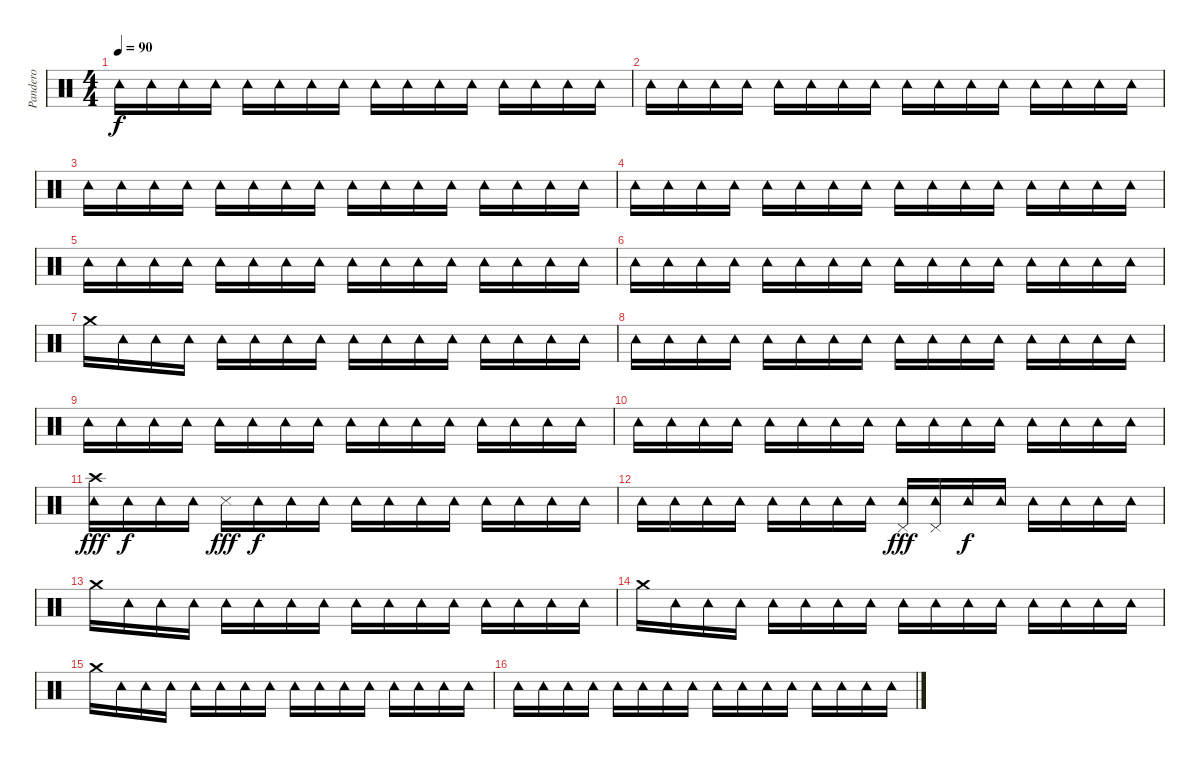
\track ("Pandero" "Pandero") {instrument percussion}
\staff {score}
\articulation defaults
\ts (4 4)
\tempo 90
\clef neutral
\ks c "Tambourine (hit)".16{dy f} "Tambourine (hit)".16 "Tambourine (hit)".16 "Tambourine (hit)".16 "Tambourine (hit)".16 "Tambourine (hit)".16 "Tambourine (hit)".16 "Tambourine (hit)".16 "Tambourine (hit)".16 "Tambourine (hit)".16 "Tambourine (hit)".16 "Tambourine (hit)".16 "Tambourine (hit)".16 "Tambourine (hit)".16 "Tambourine (hit)".16 "Tambourine (hit)".16
|
"Tambourine (hit)".16 "Tambourine (hit)".16 "Tambourine (hit)".16 "Tambourine (hit)".16 "Tambourine (hit)".16 "Tambourine (hit)".16 "Tambourine (hit)".16 "Tambourine (hit)".16 "Tambourine (hit)".16 "Tambourine (hit)".16 "Tambourine (hit)".16 "Tambourine (hit)".16 "Tambourine (hit)".16 "Tambourine (hit)".16 "Tambourine (hit)".16 "Tambourine (hit)".16 |
"Tambourine (hit)".16 "Tambourine (hit)".16 "Tambourine (hit)".16 "Tambourine (hit)".16 "Tambourine (hit)".16 "Tambourine (hit)".16 "Tambourine (hit)".16 "Tambourine (hit)".16 "Tambourine (hit)".16 "Tambourine (hit)".16 "Tambourine (hit)".16 "Tambourine (hit)".16 "Tambourine (hit)".16 "Tambourine (hit)".16 "Tambourine (hit)".16 "Tambourine (hit)".16 |
"Tambourine (hit)".16 "Tambourine (hit)".16 "Tambourine (hit)".16 "Tambourine (hit)".16 "Tambourine (hit)".16 "Tambourine (hit)".16 "Tambourine (hit)".16 "Tambourine (hit)".16 "Tambourine (hit)".16 "Tambourine (hit)".16 "Tambourine (hit)".16 "Tambourine (hit)".16 "Tambourine (hit)".16 "Tambourine (hit)".16 "Tambourine (hit)".16 "Tambourine (hit)".16 |
"Tambourine (hit)".16 "Tambourine (hit)".16 "Tambourine (hit)".16 "Tambourine (hit)".16 "Tambourine (hit)".16 "Tambourine (hit)".16 "Tambourine (hit)".16 "Tambourine (hit)".16 "Tambourine (hit)".16 "Tambourine (hit)".16 "Tambourine (hit)".16 "Tambourine (hit)".16 "Tambourine (hit)".16 "Tambourine (hit)".16 "Tambourine (hit)".16 "Tambourine (hit)".16 |
"Tambourine (hit)".16 "Tambourine (hit)".16 "Tambourine (hit)".16 "Tambourine (hit)".16 "Tambourine (hit)".16 "Tambourine (hit)".16 "Tambourine (hit)".16 "Tambourine (hit)".16 "Tambourine (hit)".16 "Tambourine (hit)".16 "Tambourine (hit)".16 "Tambourine (hit)".16 "Tambourine (hit)".16 "Tambourine (hit)".16 "Tambourine (hit)".16 "Tambourine (hit)".16 |
"Crash medium (hit)".16 "Tambourine (hit)".16 "Tambourine (hit)".16 "Tambourine (hit)".16 "Tambourine (hit)".16 "Tambourine (hit)".16 "Tambourine (hit)".16 "Tambourine (hit)".16 "Tambourine (hit)".16 "Tambourine (hit)".16 "Tambourine (hit)".16 "Tambourine (hit)".16 "Tambourine (hit)".16 "Tambourine (hit)".16 "Tambourine (hit)".16 "Tambourine (hit)".16 |
"Tambourine (hit)".16 "Tambourine (hit)".16 "Tambourine (hit)".16 "Tambourine (hit)".16 "Tambourine (hit)".16 "Tambourine (hit)".16 "Tambourine (hit)".16 "Tambourine (hit)".16 "Tambourine (hit)".16 "Tambourine (hit)".16 "Tambourine (hit)".16 "Tambourine (hit)".16 "Tambourine (hit)".16 "Tambourine (hit)".16 "Tambourine (hit)".16 "Tambourine (hit)".16 |
"Tambourine (hit)".16 "Tambourine (hit)".16 "Tambourine (hit)".16 "Tambourine (hit)".16 "Tambourine (hit)".16 "Tambourine (hit)".16 "Tambourine (hit)".16 "Tambourine (hit)".16 "Tambourine (hit)".16 "Tambourine (hit)".16 "Tambourine (hit)".16 "Tambourine (hit)".16 "Tambourine (hit)".16 "Tambourine (hit)".16 "Tambourine (hit)".16 "Tambourine (hit)".16 |
"Tambourine (hit)".16 "Tambourine (hit)".16 "Tambourine (hit)".16 "Tambourine (hit)".16 "Tambourine (hit)".16 "Tambourine (hit)".16 "Tambourine (hit)".16 "Tambourine (hit)".16 "Tambourine (hit)".16 "Tambourine (hit)".16 "Tambourine (hit)".16 "Tambourine (hit)".16 "Tambourine (hit)".16 "Tambourine (hit)".16 "Tambourine (hit)".16 "Tambourine (hit)".16 |
("Tambourine (hit)" "Crash high (hit)").16{dy fff} "Tambourine (hit)".16{dy f} "Tambourine (hit)".16 "Tambourine (hit)".16 "Snare (side stick) 3".16{dy fff} "Tambourine (hit)".16{dy f} "Tambourine (hit)".16 "Tambourine (hit)".16 "Tambourine (hit)".16 "Tambourine (hit)".16 "Tambourine (hit)".16 "Tambourine (hit)".16 "Tambourine (hit)".16 "Tambourine (hit)".16 "Tambourine (hit)".16 "Tambourine (hit)".16 |
"Tambourine (hit)".16 "Tambourine (hit)".16 "Tambourine (hit)".16 "Tambourine (hit)".16 "Tambourine (hit)".16 "Tambourine (hit)".16 "Tambourine (hit)".16 "Tambourine (hit)".16 ("Tambourine (hit)" "Pedal Hi-Hat (hit)").16{dy fff} ("Tambourine (hit)" "Pedal Hi-Hat (hit)").16 "Tambourine (hit)".16{dy f} "Tambourine (hit)".16 "Tambourine (hit)".16 "Tambourine (hit)".16 "Tambourine (hit)".16 "Tambourine (hit)".16 |
"Crash medium (hit)".16 "Tambourine (hit)".16 "Tambourine (hit)".16 "Tambourine (hit)".16 "Tambourine (hit)".16 "Tambourine (hit)".16 "Tambourine (hit)".16 "Tambourine (hit)".16 "Tambourine (hit)".16 "Tambourine (hit)".16 "Tambourine (hit)".16 "Tambourine (hit)".16 "Tambourine (hit)".16 "Tambourine (hit)".16 "Tambourine (hit)".16 "Tambourine (hit)".16 |
"Crash medium (hit)".16 "Tambourine (hit)".16 "Tambourine (hit)".16 "Tambourine (hit)".16 "Tambourine (hit)".16 "Tambourine (hit)".16 "Tambourine (hit)".16 "Tambourine (hit)".16 "Tambourine (hit)".16 "Tambourine (hit)".16 "Tambourine (hit)".16 "Tambourine (hit)".16 "Tambourine (hit)".16 "Tambourine (hit)".16 "Tambourine (hit)".16 "Tambourine (hit)".16 |
"Crash medium (hit)".16 "Tambourine (hit)".16 "Tambourine (hit)".16 "Tambourine (hit)".16 "Tambourine (hit)".16 "Tambourine (hit)".16 "Tambourine (hit)".16 "Tambourine (hit)".16 "Tambourine (hit)".16 "Tambourine (hit)".16 "Tambourine (hit)".16 "Tambourine (hit)".16 "Tambourine (hit)".16 "Tambourine (hit)".16 "Tambourine (hit)".16 "Tambourine (hit)".16 |
"Tambourine (hit)".16 "Tambourine (hit)".16 "Tambourine (hit)".16 "Tambourine (hit)".16 "Tambourine (hit)".16 "Tambourine (hit)".16 "Tambourine (hit)".16 "Tambourine (hit)".16 "Tambourine (hit)".16 "Tambourine (hit)".16 "Tambourine (hit)".16 "Tambourine (hit)".16 "Tambourine (hit)".16 "Tambourine (hit)".16 "Tambourine (hit)".16 "Tambourine (hit)".16
